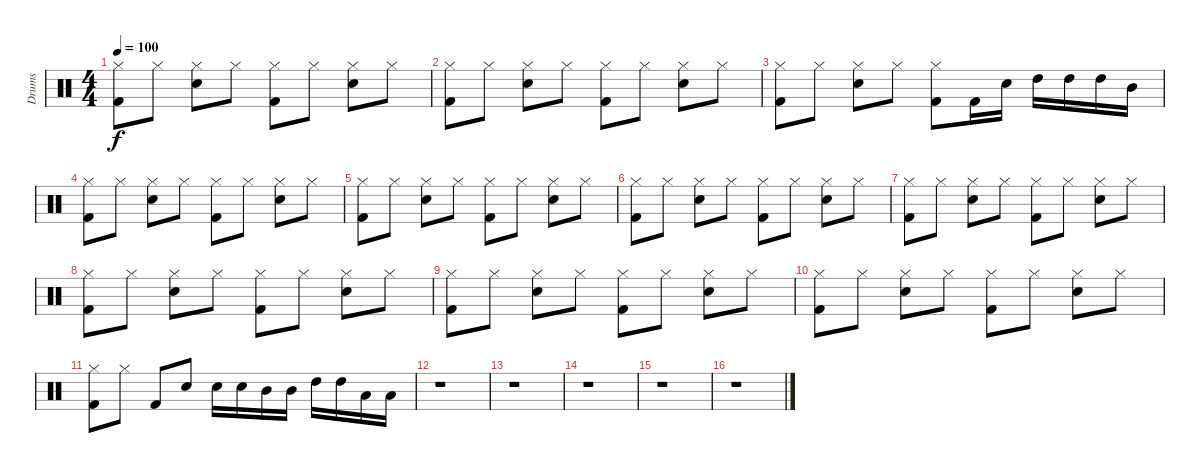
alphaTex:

\track ("Drums" "Drums") {instrument percussion}
\staff {score}
\articulation defaults
\ts (4 4)
\tempo 100
\clef neutral
\ks c
("Kick (hit) 2" "Hi-Hat (closed)").8{dy f} "Hi-Hat (closed)".8 ("Snare (hit) 2" "Hi-Hat (closed)").8 "Hi-Hat (closed)".8 ("Kick (hit) 2" "Hi-Hat (closed)").8 "Hi-Hat (closed)".8 ("Snare (hit) 2" "Hi-Hat (closed)").8 "Hi-Hat (closed)".8 |
("Kick (hit) 2" "Hi-Hat (closed)").8 "Hi-Hat (closed)".8 ("Snare (hit) 2" "Hi-Hat (closed)").8 "Hi-Hat (closed)".8 ("Kick (hit) 2" "Hi-Hat (closed)").8 "Hi-Hat (closed)".8 ("Snare (hit) 2" "Hi-Hat (closed)").8 "Hi-Hat (closed)".8 |
("Kick (hit) 2" "Hi-Hat (closed)").8 "Hi-Hat (closed)".8 ("Snare (hit) 2" "Hi-Hat (closed)").8 "Hi-Hat (closed)".8 ("Kick (hit) 2" "Hi-Hat (closed)").8 "Kick (hit) 2".16 "Snare (hit) 2".16 "High Tom (hit)".16 "High Tom (hit)".16 "High Tom (hit)".16 "Mid Tom (hit)".16 |
("Kick (hit) 2" "Hi-Hat (closed)").8 "Hi-Hat (closed)".8 ("Snare (hit) 2" "Hi-Hat (closed)").8 "Hi-Hat (closed)".8 ("Kick (hit) 2" "Hi-Hat (closed)").8 "Hi-Hat (closed)".8 ("Snare (hit) 2" "Hi-Hat (closed)").8 "Hi-Hat (closed)".8 |
("Kick (hit) 2" "Hi-Hat (closed)").8 "Hi-Hat (closed)".8 ("Snare (hit) 2" "Hi-Hat (closed)").8 "Hi-Hat (closed)".8 ("Kick (hit) 2" "Hi-Hat (closed)").8 "Hi-Hat (closed)".8 ("Snare (hit) 2" "Hi-Hat (closed)").8 "Hi-Hat (closed)".8 |
("Kick (hit) 2" "Hi-Hat (closed)").8 "Hi-Hat (closed)".8 ("Snare (hit) 2" "Hi-Hat (closed)").8 "Hi-Hat (closed)".8 ("Kick (hit) 2" "Hi-Hat (closed)").8 "Hi-Hat (closed)".8 ("Snare (hit) 2" "Hi-Hat (closed)").8 "Hi-Hat (closed)".8 |
("Kick (hit) 2" "Hi-Hat (closed)").8 "Hi-Hat (closed)".8 ("Snare (hit) 2" "Hi-Hat (closed)").8 "Hi-Hat (closed)".8 ("Kick (hit) 2" "Hi-Hat (closed)").8 "Hi-Hat (closed)".8 ("Snare (hit) 2" "Hi-Hat (closed)").8 "Hi-Hat (closed)".8 |
("Kick (hit) 2" "Hi-Hat (closed)").8 "Hi-Hat (closed)".8 ("Snare (hit) 2" "Hi-Hat (closed)").8 "Hi-Hat (closed)".8 ("Kick (hit) 2" "Hi-Hat (closed)").8 "Hi-Hat (closed)".8 ("Snare (hit) 2" "Hi-Hat (closed)").8 "Hi-Hat (closed)".8 |
("Kick (hit) 2" "Hi-Hat (closed)").8 "Hi-Hat (closed)".8 ("Snare (hit) 2" "Hi-Hat (closed)").8 "Hi-Hat (closed)".8 ("Kick (hit) 2" "Hi-Hat (closed)").8 "Hi-Hat (closed)".8 ("Snare (hit) 2" "Hi-Hat (closed)").8 "Hi-Hat (closed)".8 |
("Kick (hit) 2" "Hi-Hat (closed)").8 "Hi-Hat (closed)".8 ("Snare (hit) 2" "Hi-Hat (closed)").8 "Hi-Hat (closed)".8 ("Kick (hit) 2" "Hi-Hat (closed)").8 "Hi-Hat (closed)".8 ("Snare (hit) 2" "Hi-Hat (closed)").8 "Hi-Hat (closed)".8 |
("Kick (hit) 2" "Hi-Hat (closed)").8 "Hi-Hat (closed)".8 "Kick (hit) 2".8 "Snare (hit) 2".8 "Snare (hit) 2".16 "Snare (hit) 2".16 "Mid Tom (hit)".16 "Mid Tom (hit)".16 "High Tom (hit)".16 "High Tom (hit)".16 "Low Tom (hit)".16 "Low Tom (hit)".16 |
r.1 |
r.1 |
r.1 |
r.1 |
r.1
